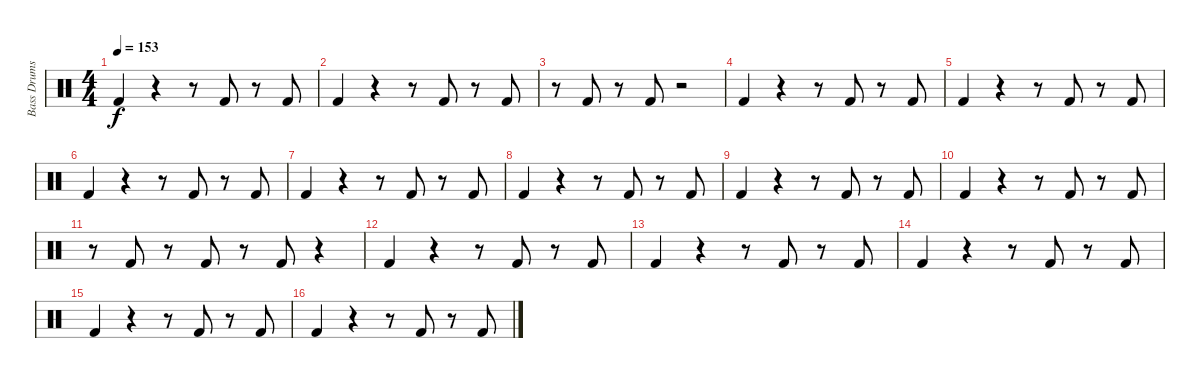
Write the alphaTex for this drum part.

\track ("Bass Drums" "Bass Drums") {instrument percussion}
\staff {score}
\articulation defaults
\ts (4 4)
\tempo 153
\clef neutral
\ks c "Kick (hit) 2".4{dy f}
r.4 r.8 "Kick (hit) 2".8 r.8 "Kick (hit) 2".8 |
"Kick (hit) 2".4 r.4 r.8 "Kick (hit) 2".8 r.8 "Kick (hit) 2".8 |
r.8 "Kick (hit) 2".8 r.8 "Kick (hit) 2".8 r.2 |
"Kick (hit) 2".4 r.4 r.8 "Kick (hit) 2".8 r.8 "Kick (hit) 2".8 |
"Kick (hit) 2".4 r.4 r.8 "Kick (hit) 2".8 r.8 "Kick (hit) 2".8 |
"Kick (hit) 2".4 r.4 r.8 "Kick (hit) 2".8 r.8 "Kick (hit) 2".8 |
"Kick (hit) 2".4 r.4 r.8 "Kick (hit) 2".8 r.8 "Kick (hit) 2".8 |
"Kick (hit) 2".4 r.4 r.8 "Kick (hit) 2".8 r.8 "Kick (hit) 2".8 |
"Kick (hit) 2".4 r.4 r.8 "Kick (hit) 2".8 r.8 "Kick (hit) 2".8 |
"Kick (hit) 2".4 r.4 r.8 "Kick (hit) 2".8 r.8 "Kick (hit) 2".8 |
r.8 "Kick (hit) 2".8 r.8 "Kick (hit) 2".8 r.8 "Kick (hit) 2".8 r.4 |
"Kick (hit) 2".4 r.4 r.8 "Kick (hit) 2".8 r.8 "Kick (hit) 2".8 |
"Kick (hit) 2".4 r.4 r.8 "Kick (hit) 2".8 r.8 "Kick (hit) 2".8 |
"Kick (hit) 2".4 r.4 r.8 "Kick (hit) 2".8 r.8 "Kick (hit) 2".8 |
"Kick (hit) 2".4 r.4 r.8 "Kick (hit) 2".8 r.8 "Kick (hit) 2".8 |
"Kick (hit) 2".4 r.4 r.8 "Kick (hit) 2".8 r.8 "Kick (hit) 2".8
